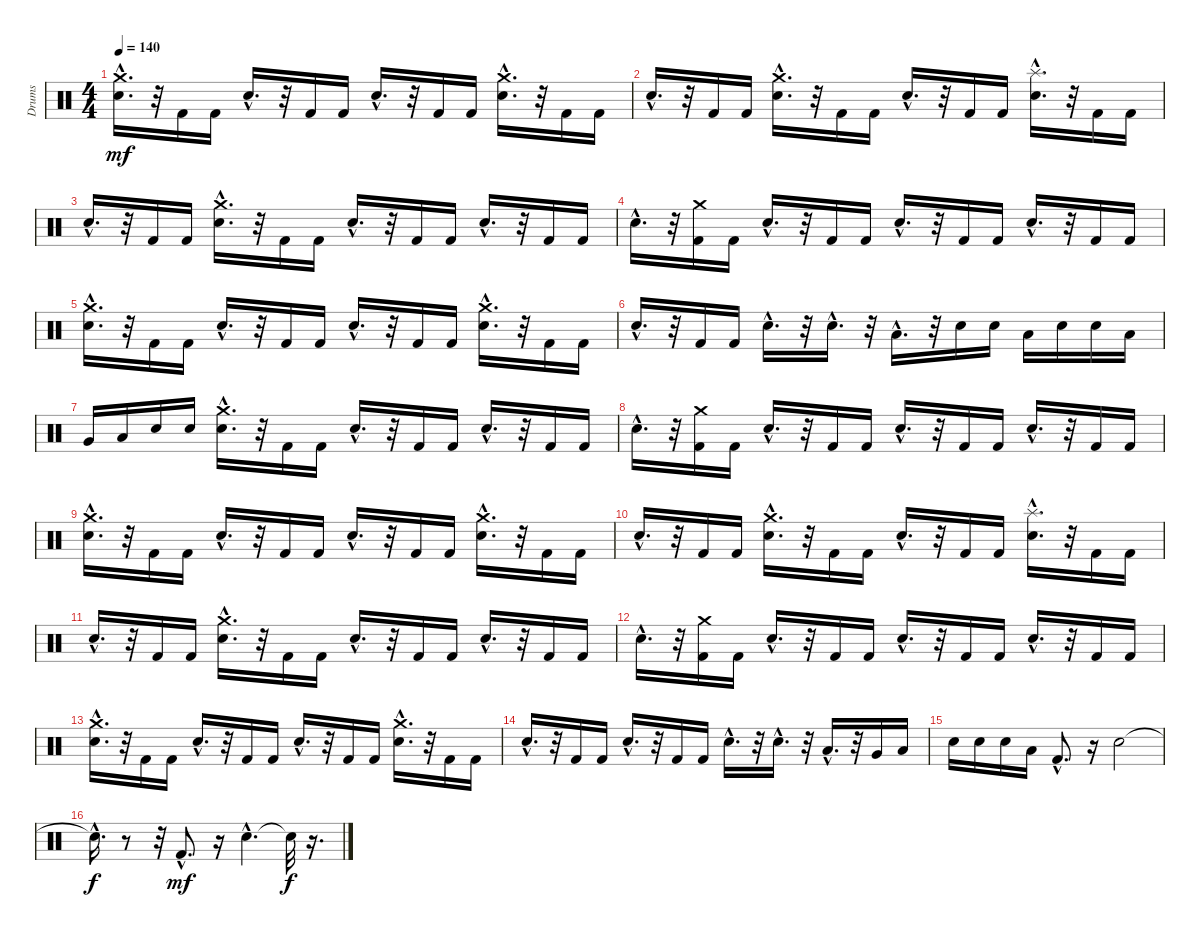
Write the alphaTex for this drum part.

\track ("Drums" "Drums") {instrument percussion}
\staff {score}
\articulation defaults
\ts (4 4)
\tempo 140
\clef neutral
\ks c
("Crash medium (hit)"{hac} "Electric Snare (hit)"{hac}).16{d dy mf} r.32 "Kick (hit) 2".16 "Kick (hit) 2".16 "Electric Snare (hit)"{hac}.16{d} r.32 "Kick (hit) 2".16 "Kick (hit) 2".16 "Electric Snare (hit)"{hac}.16{d} r.32 "Kick (hit) 2".16 "Kick (hit) 2".16 ("Crash medium (hit)"{hac} "Electric Snare (hit)"{hac}).16{d} r.32 "Kick (hit) 2".16 "Kick (hit) 2".16 |
"Electric Snare (hit)"{hac}.16{d} r.32 "Kick (hit) 2".16 "Kick (hit) 2".16 ("Crash medium (hit)"{hac} "Snare (hit) 2"{hac}).16{d} r.32 "Kick (hit) 2".16 "Kick (hit) 2".16 "Snare (hit) 2"{hac}.16{d} r.32 "Kick (hit) 2".16 "Kick (hit) 2".16 ("Snare (hit) 2"{hac} "Splash (hit)"{hac}).16{d} r.32 "Kick (hit) 2".16 "Kick (hit) 2".16 |
"Snare (hit) 2"{hac}.16{d} r.32 "Kick (hit) 2".16 "Kick (hit) 2".16 ("Crash medium (hit)"{hac} "Electric Snare (hit)"{hac}).16{d} r.32 "Kick (hit) 2".16 "Kick (hit) 2".16 "Electric Snare (hit)"{hac}.16{d} r.32 "Kick (hit) 2".16 "Kick (hit) 2".16 "Electric Snare (hit)"{hac}.16{d} r.32 "Kick (hit) 2".16 "Kick (hit) 2".16 |
"Electric Snare (hit)"{hac}.16{d} r.32 ("Crash medium (hit)" "Kick (hit) 2").16 "Kick (hit) 2".16 "Electric Snare (hit)"{hac}.16{d} r.32 "Kick (hit) 2".16 "Kick (hit) 2".16 "Electric Snare (hit)"{hac}.16{d} r.32 "Kick (hit) 2".16 "Kick (hit) 2".16 "Electric Snare (hit)"{hac}.16{d} r.32 "Kick (hit) 2".16 "Kick (hit) 2".16 |
("Crash medium (hit)"{hac} "Electric Snare (hit)"{hac}).16{d} r.32 "Kick (hit) 2".16 "Kick (hit) 2".16 "Electric Snare (hit)"{hac}.16{d} r.32 "Kick (hit) 2".16 "Kick (hit) 2".16 "Electric Snare (hit)"{hac}.16{d} r.32 "Kick (hit) 2".16 "Kick (hit) 2".16 ("Crash medium (hit)"{hac} "Electric Snare (hit)"{hac}).16{d} r.32 "Kick (hit) 2".16 "Kick (hit) 2".16 |
"Electric Snare (hit)"{hac}.16{d} r.32 "Kick (hit) 2".16 "Kick (hit) 2".16 "Snare (hit) 2"{hac}.16{d} r.32 "Electric Snare (hit)"{hac}.16{d} r.32 "Low Floor Tom (hit)"{hac}.16{d} r.32 "Snare (hit) 2".16 "Electric Snare (hit)".16 "Low Floor Tom (hit)".16 "Snare (hit) 2".16 "Electric Snare (hit)".16 "Low Floor Tom (hit)".16 |
"Very Low Tom (hit)".16 "Low Floor Tom (hit)".16 "Electric Snare (hit)".16 "Snare (hit) 2".16 ("Crash medium (hit)"{hac} "Electric Snare (hit)"{hac}).16{d} r.32 "Kick (hit) 2".16 "Kick (hit) 2".16 "Electric Snare (hit)"{hac}.16{d} r.32 "Kick (hit) 2".16 "Kick (hit) 2".16 "Electric Snare (hit)"{hac}.16{d} r.32 "Kick (hit) 2".16 "Kick (hit) 2".16 |
"Electric Snare (hit)"{hac}.16{d} r.32 ("Crash medium (hit)" "Kick (hit) 2").16 "Kick (hit) 2".16 "Electric Snare (hit)"{hac}.16{d} r.32 "Kick (hit) 2".16 "Kick (hit) 2".16 "Electric Snare (hit)"{hac}.16{d} r.32 "Kick (hit) 2".16 "Kick (hit) 2".16 "Electric Snare (hit)"{hac}.16{d} r.32 "Kick (hit) 2".16 "Kick (hit) 2".16 |
("Crash medium (hit)"{hac} "Electric Snare (hit)"{hac}).16{d} r.32 "Kick (hit) 2".16 "Kick (hit) 2".16 "Electric Snare (hit)"{hac}.16{d} r.32 "Kick (hit) 2".16 "Kick (hit) 2".16 "Electric Snare (hit)"{hac}.16{d} r.32 "Kick (hit) 2".16 "Kick (hit) 2".16 ("Crash medium (hit)"{hac} "Electric Snare (hit)"{hac}).16{d} r.32 "Kick (hit) 2".16 "Kick (hit) 2".16 |
"Electric Snare (hit)"{hac}.16{d} r.32 "Kick (hit) 2".16 "Kick (hit) 2".16 ("Crash medium (hit)"{hac} "Snare (hit) 2"{hac}).16{d} r.32 "Kick (hit) 2".16 "Kick (hit) 2".16 "Snare (hit) 2"{hac}.16{d} r.32 "Kick (hit) 2".16 "Kick (hit) 2".16 ("Snare (hit) 2"{hac} "Splash (hit)"{hac}).16{d} r.32 "Kick (hit) 2".16 "Kick (hit) 2".16 |
"Snare (hit) 2"{hac}.16{d} r.32 "Kick (hit) 2".16 "Kick (hit) 2".16 ("Crash medium (hit)"{hac} "Electric Snare (hit)"{hac}).16{d} r.32 "Kick (hit) 2".16 "Kick (hit) 2".16 "Electric Snare (hit)"{hac}.16{d} r.32 "Kick (hit) 2".16 "Kick (hit) 2".16 "Electric Snare (hit)"{hac}.16{d} r.32 "Kick (hit) 2".16 "Kick (hit) 2".16 |
"Electric Snare (hit)"{hac}.16{d} r.32 ("Crash medium (hit)" "Kick (hit) 2").16 "Kick (hit) 2".16 "Electric Snare (hit)"{hac}.16{d} r.32 "Kick (hit) 2".16 "Kick (hit) 2".16 "Electric Snare (hit)"{hac}.16{d} r.32 "Kick (hit) 2".16 "Kick (hit) 2".16 "Electric Snare (hit)"{hac}.16{d} r.32 "Kick (hit) 2".16 "Kick (hit) 2".16 |
("Crash medium (hit)"{hac} "Electric Snare (hit)"{hac}).16{d} r.32 "Kick (hit) 2".16 "Kick (hit) 2".16 "Electric Snare (hit)"{hac}.16{d} r.32 "Kick (hit) 2".16 "Kick (hit) 2".16 "Electric Snare (hit)"{hac}.16{d} r.32 "Kick (hit) 2".16 "Kick (hit) 2".16 ("Crash medium (hit)"{hac} "Electric Snare (hit)"{hac}).16{d} r.32 "Kick (hit) 2".16 "Kick (hit) 2".16 |
"Electric Snare (hit)"{hac}.16{d} r.32 "Kick (hit) 2".16 "Kick (hit) 2".16 "Snare (hit) 2"{hac}.16{d} r.32 "Kick (hit) 2".16 "Kick (hit) 2".16 "Snare (hit) 2"{hac}.16{d} r.32 "Electric Snare (hit)"{hac}.16{d} r.32 "Low Floor Tom (hit)"{hac}.16{d} r.32 "Very Low Tom (hit)".16 "Low Floor Tom (hit)".16 |
"Electric Snare (hit)".16 "Snare (hit) 2".16 "Electric Snare (hit)".16 "Low Floor Tom (hit)".16 "Kick (hit) 2"{hac}.8{d} r.16 "Snare (hit) 2".2 |
"Snare (hit)"{hac t}.16{d dy f} r.8 r.32 "Kick (hit) 2"{hac}.8{d dy mf} r.16 "Snare (hit) 2"{hac}.4{d} "Snare (hit)"{t}.32{dy f} r.16{d}
